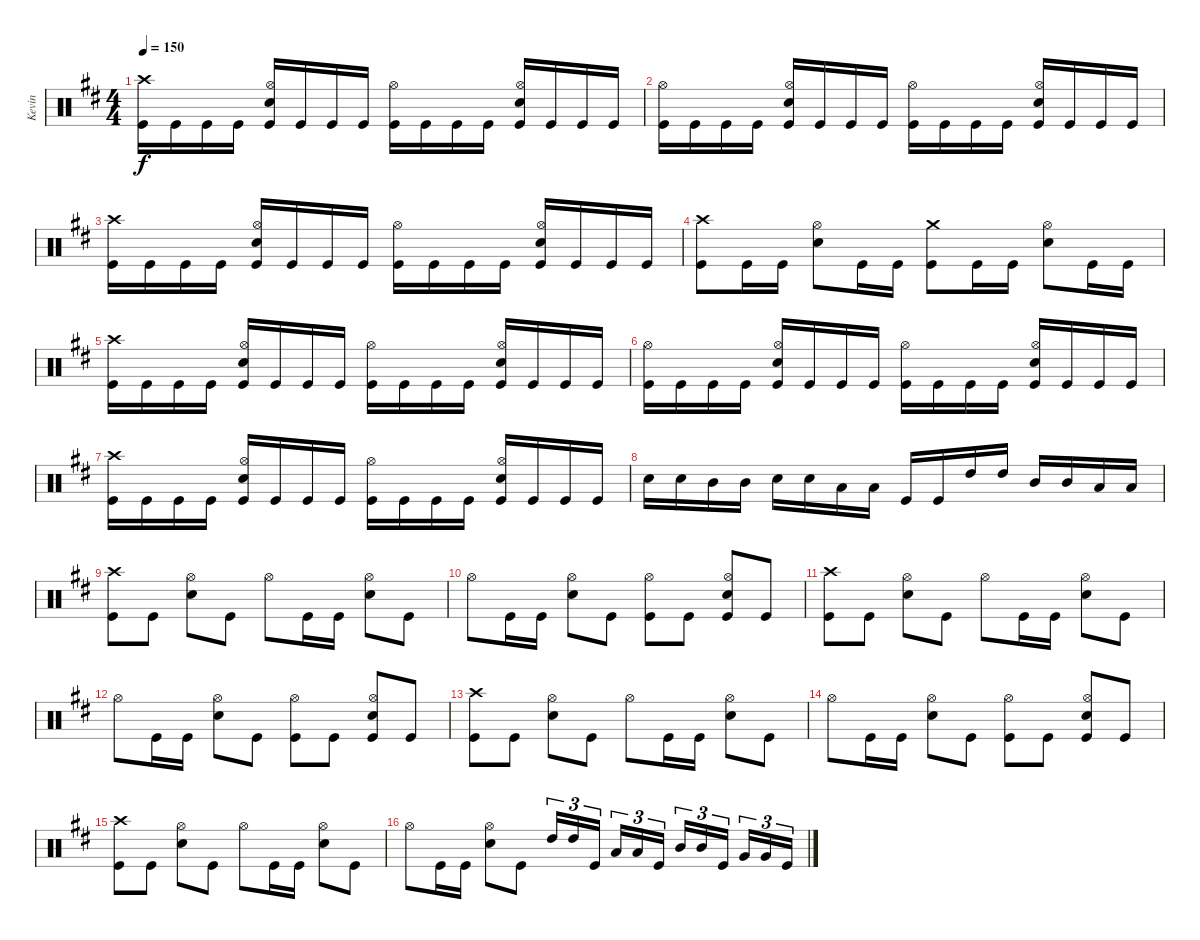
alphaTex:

\track ("Kevin" "Kevin") {instrument percussion}
\staff {score}
\articulation defaults
\ts (4 4)
\tempo 150
\clef neutral
\ks d
("Crash high (hit)" "Kick (hit)").16{dy f} "Kick (hit)".16 "Kick (hit)".16 "Kick (hit)".16 ("Hi-Hat (open)" "Snare (hit) 2" "Kick (hit)").16 "Kick (hit)".16 "Kick (hit)".16 "Kick (hit)".16 ("Hi-Hat (open)" "Kick (hit)").16 "Kick (hit)".16 "Kick (hit)".16 "Kick (hit)".16 ("Hi-Hat (open)" "Snare (hit) 2" "Kick (hit)").16 "Kick (hit)".16 "Kick (hit)".16 "Kick (hit)".16 |
("Hi-Hat (open)" "Kick (hit)").16 "Kick (hit)".16 "Kick (hit)".16 "Kick (hit)".16 ("Hi-Hat (open)" "Snare (hit) 2" "Kick (hit)").16 "Kick (hit)".16 "Kick (hit)".16 "Kick (hit)".16 ("Hi-Hat (open)" "Kick (hit)").16 "Kick (hit)".16 "Kick (hit)".16 "Kick (hit)".16 ("Hi-Hat (open)" "Snare (hit) 2" "Kick (hit)").16 "Kick (hit)".16 "Kick (hit)".16 "Kick (hit)".16 |
("Crash high (hit)" "Kick (hit)").16 "Kick (hit)".16 "Kick (hit)".16 "Kick (hit)".16 ("Hi-Hat (open)" "Snare (hit) 2" "Kick (hit)").16 "Kick (hit)".16 "Kick (hit)".16 "Kick (hit)".16 ("Hi-Hat (open)" "Kick (hit)").16 "Kick (hit)".16 "Kick (hit)".16 "Kick (hit)".16 ("Hi-Hat (open)" "Snare (hit) 2" "Kick (hit)").16 "Kick (hit)".16 "Kick (hit)".16 "Kick (hit)".16 |
("Crash high (hit)" "Kick (hit)").8 "Kick (hit)".16 "Kick (hit)".16 ("Hi-Hat (open)" "Snare (hit) 2").8 "Kick (hit)".16 "Kick (hit)".16 ("Crash medium (hit)" "Kick (hit)").8 "Kick (hit)".16 "Kick (hit)".16 ("Hi-Hat (open)" "Snare (hit) 2").8 "Kick (hit)".16 "Kick (hit)".16 |
("Crash high (hit)" "Kick (hit)").16 "Kick (hit)".16 "Kick (hit)".16 "Kick (hit)".16 ("Hi-Hat (open)" "Snare (hit) 2" "Kick (hit)").16 "Kick (hit)".16 "Kick (hit)".16 "Kick (hit)".16 ("Hi-Hat (open)" "Kick (hit)").16 "Kick (hit)".16 "Kick (hit)".16 "Kick (hit)".16 ("Hi-Hat (open)" "Snare (hit) 2" "Kick (hit)").16 "Kick (hit)".16 "Kick (hit)".16 "Kick (hit)".16 |
("Hi-Hat (open)" "Kick (hit)").16 "Kick (hit)".16 "Kick (hit)".16 "Kick (hit)".16 ("Hi-Hat (open)" "Snare (hit) 2" "Kick (hit)").16 "Kick (hit)".16 "Kick (hit)".16 "Kick (hit)".16 ("Hi-Hat (open)" "Kick (hit)").16 "Kick (hit)".16 "Kick (hit)".16 "Kick (hit)".16 ("Hi-Hat (open)" "Snare (hit) 2" "Kick (hit)").16 "Kick (hit)".16 "Kick (hit)".16 "Kick (hit)".16 |
("Crash high (hit)" "Kick (hit)").16 "Kick (hit)".16 "Kick (hit)".16 "Kick (hit)".16 ("Hi-Hat (open)" "Snare (hit) 2" "Kick (hit)").16 "Kick (hit)".16 "Kick (hit)".16 "Kick (hit)".16 ("Hi-Hat (open)" "Kick (hit)").16 "Kick (hit)".16 "Kick (hit)".16 "Kick (hit)".16 ("Hi-Hat (open)" "Snare (hit) 2" "Kick (hit)").16 "Kick (hit)".16 "Kick (hit)".16 "Kick (hit)".16 |
"Snare (hit) 2".16 "Snare (hit) 2".16 "Mid Tom (hit)".16 "Mid Tom (hit)".16 "Snare (hit) 2".16 "Snare (hit) 2".16 "Low Tom (hit)".16 "Low Tom (hit)".16 "Kick (hit)".16 "Kick (hit)".16 "High Tom (hit)".16 "High Tom (hit)".16 "Mid Tom (hit)".16 "Mid Tom (hit)".16 "Low Tom (hit)".16 "Low Tom (hit)".16 |
("Crash high (hit)" "Kick (hit)").8 "Kick (hit)".8 ("Hi-Hat (open)" "Snare (hit) 2").8 "Kick (hit)".8 "Hi-Hat (open)".8 "Kick (hit)".16 "Kick (hit)".16 ("Hi-Hat (open)" "Snare (hit) 2").8 "Kick (hit)".8 |
"Hi-Hat (open)".8 "Kick (hit)".16 "Kick (hit)".16 ("Hi-Hat (open)" "Snare (hit) 2").8 "Kick (hit)".8 ("Hi-Hat (open)" "Kick (hit)").8 "Kick (hit)".8 ("Hi-Hat (open)" "Snare (hit) 2" "Kick (hit)").8 "Kick (hit)".8 |
("Crash high (hit)" "Kick (hit)").8 "Kick (hit)".8 ("Hi-Hat (open)" "Snare (hit) 2").8 "Kick (hit)".8 "Hi-Hat (open)".8 "Kick (hit)".16 "Kick (hit)".16 ("Hi-Hat (open)" "Snare (hit) 2").8 "Kick (hit)".8 |
"Hi-Hat (open)".8 "Kick (hit)".16 "Kick (hit)".16 ("Hi-Hat (open)" "Snare (hit) 2").8 "Kick (hit)".8 ("Hi-Hat (open)" "Kick (hit)").8 "Kick (hit)".8 ("Hi-Hat (open)" "Snare (hit) 2" "Kick (hit)").8 "Kick (hit)".8 |
("Crash high (hit)" "Kick (hit)").8 "Kick (hit)".8 ("Hi-Hat (open)" "Snare (hit) 2").8 "Kick (hit)".8 "Hi-Hat (open)".8 "Kick (hit)".16 "Kick (hit)".16 ("Hi-Hat (open)" "Snare (hit) 2").8 "Kick (hit)".8 |
"Hi-Hat (open)".8 "Kick (hit)".16 "Kick (hit)".16 ("Hi-Hat (open)" "Snare (hit) 2").8 "Kick (hit)".8 ("Hi-Hat (open)" "Kick (hit)").8 "Kick (hit)".8 ("Hi-Hat (open)" "Snare (hit) 2" "Kick (hit)").8 "Kick (hit)".8 |
("Crash high (hit)" "Kick (hit)").8 "Kick (hit)".8 ("Hi-Hat (open)" "Snare (hit) 2").8 "Kick (hit)".8 "Hi-Hat (open)".8 "Kick (hit)".16 "Kick (hit)".16 ("Hi-Hat (open)" "Snare (hit) 2").8 "Kick (hit)".8 |
"Hi-Hat (open)".8 "Kick (hit)".16 "Kick (hit)".16 ("Hi-Hat (open)" "Snare (hit) 2").8 "Kick (hit)".8 "High Tom (hit)".16{tu (3 2)} "High Tom (hit)".16{tu (3 2)} "Kick (hit)".16{tu (3 2) beam splitsecondary} "Low Tom (hit)".16{tu (3 2)} "Low Tom (hit)".16{tu (3 2)} "Kick (hit)".16{tu (3 2)} "Mid Tom (hit)".16{tu (3 2)} "Mid Tom (hit)".16{tu (3 2)} "Kick (hit)".16{tu (3 2) beam splitsecondary} "Very Low Tom (hit)".16{tu (3 2)} "Very Low Tom (hit)".16{tu (3 2)} "Kick (hit)".16{tu (3 2)}
